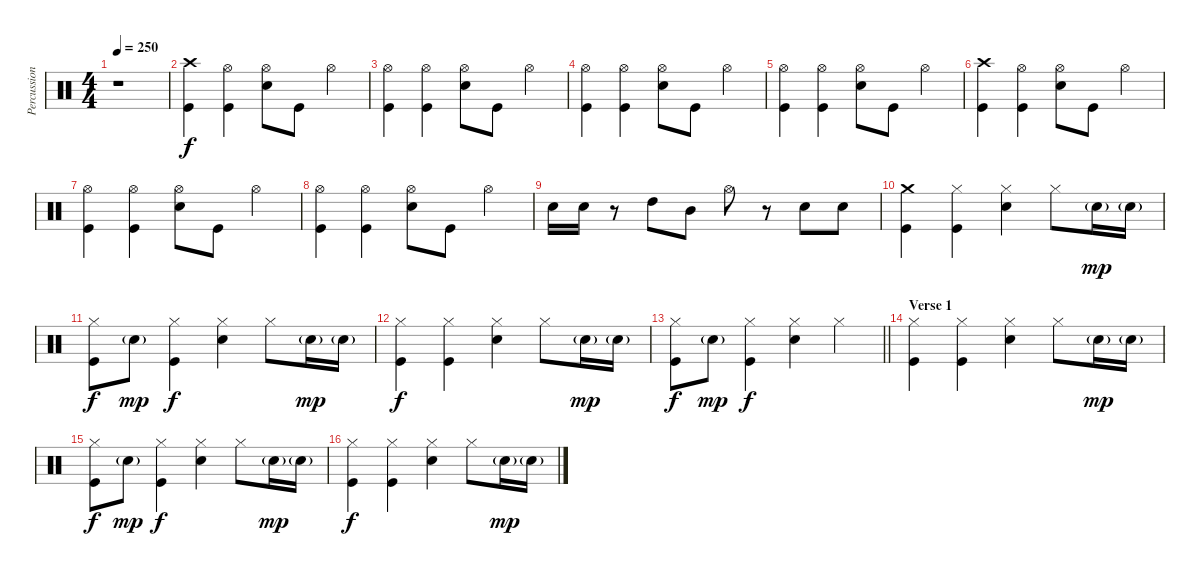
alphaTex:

\track ("Percussion" "Percussion") {instrument percussion}
\staff {score}
\articulation defaults
\ts (4 4)
\tempo 250
\clef neutral
\ks c
r.1{dy f} |
("Crash high (hit)" "Kick (hit)").4 ("Hi-Hat (open)" "Kick (hit)").4 ("Hi-Hat (open)" "Snare (hit) 2").8 "Kick (hit)".8 "Hi-Hat (open)".4 |
("Hi-Hat (open)" "Kick (hit)").4 ("Hi-Hat (open)" "Kick (hit)").4 ("Hi-Hat (open)" "Snare (hit) 2").8 "Kick (hit)".8 "Hi-Hat (open)".4 |
("Hi-Hat (open)" "Kick (hit)").4 ("Hi-Hat (open)" "Kick (hit)").4 ("Hi-Hat (open)" "Snare (hit) 2").8 "Kick (hit)".8 "Hi-Hat (open)".4 |
("Hi-Hat (open)" "Kick (hit)").4 ("Hi-Hat (open)" "Kick (hit)").4 ("Hi-Hat (open)" "Snare (hit) 2").8 "Kick (hit)".8 "Hi-Hat (open)".4 |
("Crash high (hit)" "Kick (hit)").4 ("Hi-Hat (open)" "Kick (hit)").4 ("Hi-Hat (open)" "Snare (hit) 2").8 "Kick (hit)".8 "Hi-Hat (open)".4 |
("Hi-Hat (open)" "Kick (hit)").4 ("Hi-Hat (open)" "Kick (hit)").4 ("Hi-Hat (open)" "Snare (hit) 2").8 "Kick (hit)".8 "Hi-Hat (open)".4 |
("Hi-Hat (open)" "Kick (hit)").4 ("Hi-Hat (open)" "Kick (hit)").4 ("Hi-Hat (open)" "Snare (hit) 2").8 "Kick (hit)".8 "Hi-Hat (open)".4 |
"Snare (hit) 2".16 "Snare (hit) 2".16 r.8 "High Tom (hit)".8 "Mid Tom (hit)".8 "Hi-Hat (open)".8 r.8 "Snare (hit) 2".8 "Snare (hit) 2".8 |
("Crash medium (hit)" "Kick (hit)").4 ("Hi-Hat (closed)" "Kick (hit)").4 ("Hi-Hat (closed)" "Snare (hit) 2").4 "Hi-Hat (closed)".8 "Snare (hit) 2"{g}.16{dy mp} "Snare (hit) 2"{g}.16 |
("Hi-Hat (closed)" "Kick (hit)").8{dy f} "Snare (hit) 2"{g}.8{dy mp} ("Hi-Hat (closed)" "Kick (hit)").4{dy f} ("Hi-Hat (closed)" "Snare (hit) 2").4 "Hi-Hat (closed)".8 "Snare (hit) 2"{g}.16{dy mp} "Snare (hit) 2"{g}.16 |
("Hi-Hat (closed)" "Kick (hit)").4{dy f} ("Hi-Hat (closed)" "Kick (hit)").4 ("Hi-Hat (closed)" "Snare (hit) 2").4 "Hi-Hat (closed)".8 "Snare (hit) 2"{g}.16{dy mp} "Snare (hit) 2"{g}.16 |
\barLineRight lightlight
("Hi-Hat (closed)" "Kick (hit)").8{dy f} "Snare (hit) 2"{g}.8{dy mp} ("Hi-Hat (closed)" "Kick (hit)").4{dy f} ("Hi-Hat (closed)" "Snare (hit) 2").4 "Hi-Hat (closed)".4 |
\section ("" "Verse 1")
("Hi-Hat (closed)" "Kick (hit)").4 ("Hi-Hat (closed)" "Kick (hit)").4 ("Hi-Hat (closed)" "Snare (hit) 2").4 "Hi-Hat (closed)".8 "Snare (hit) 2"{g}.16{dy mp} "Snare (hit) 2"{g}.16 |
("Hi-Hat (closed)" "Kick (hit)").8{dy f} "Snare (hit) 2"{g}.8{dy mp} ("Hi-Hat (closed)" "Kick (hit)").4{dy f} ("Hi-Hat (closed)" "Snare (hit) 2").4 "Hi-Hat (closed)".8 "Snare (hit) 2"{g}.16{dy mp} "Snare (hit) 2"{g}.16 |
("Hi-Hat (closed)" "Kick (hit)").4{dy f} ("Hi-Hat (closed)" "Kick (hit)").4 ("Hi-Hat (closed)" "Snare (hit) 2").4 "Hi-Hat (closed)".8 "Snare (hit) 2"{g}.16{dy mp} "Snare (hit) 2"{g}.16
